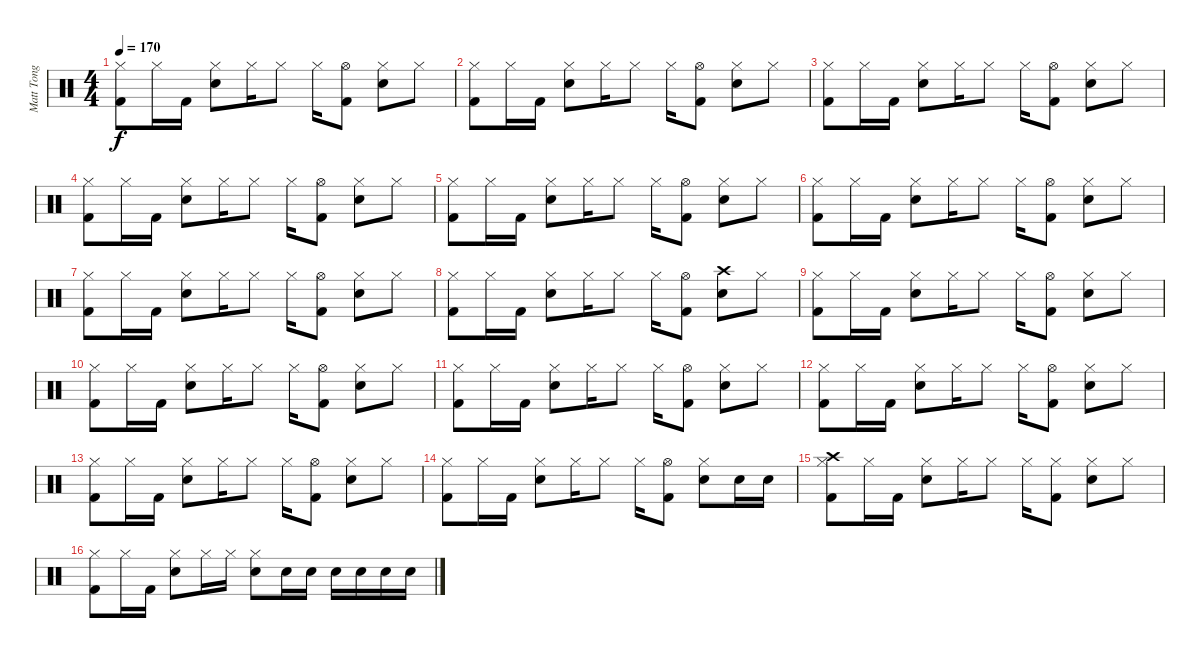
\track ("Matt Tong" "Matt Tong") {instrument percussion}
\staff {score}
\articulation defaults
\ts (4 4)
\tempo 170
\clef neutral
\ks c
("Hi-Hat (closed)" "Kick (hit) 2").8{dy f} "Hi-Hat (closed)".16 "Kick (hit) 2".16 ("Hi-Hat (closed)" "Electric Snare (hit)").8 "Hi-Hat (closed)".16 "Hi-Hat (closed)".8 "Hi-Hat (closed)".16 ("Hi-Hat (open)" "Kick (hit) 2").8 ("Hi-Hat (closed)" "Electric Snare (hit)").8 "Hi-Hat (closed)".8 |
("Hi-Hat (closed)" "Kick (hit) 2").8 "Hi-Hat (closed)".16 "Kick (hit) 2".16 ("Hi-Hat (closed)" "Electric Snare (hit)").8 "Hi-Hat (closed)".16 "Hi-Hat (closed)".8 "Hi-Hat (closed)".16 ("Hi-Hat (open)" "Kick (hit) 2").8 ("Hi-Hat (closed)" "Electric Snare (hit)").8 "Hi-Hat (closed)".8 |
("Hi-Hat (closed)" "Kick (hit) 2").8 "Hi-Hat (closed)".16 "Kick (hit) 2".16 ("Hi-Hat (closed)" "Electric Snare (hit)").8 "Hi-Hat (closed)".16 "Hi-Hat (closed)".8 "Hi-Hat (closed)".16 ("Hi-Hat (open)" "Kick (hit) 2").8 ("Hi-Hat (closed)" "Electric Snare (hit)").8 "Hi-Hat (closed)".8 |
("Hi-Hat (closed)" "Kick (hit) 2").8 "Hi-Hat (closed)".16 "Kick (hit) 2".16 ("Hi-Hat (closed)" "Electric Snare (hit)").8 "Hi-Hat (closed)".16 "Hi-Hat (closed)".8 "Hi-Hat (closed)".16 ("Hi-Hat (open)" "Kick (hit) 2").8 ("Hi-Hat (closed)" "Electric Snare (hit)").8 "Hi-Hat (closed)".8 |
("Hi-Hat (closed)" "Kick (hit) 2").8 "Hi-Hat (closed)".16 "Kick (hit) 2".16 ("Hi-Hat (closed)" "Electric Snare (hit)").8 "Hi-Hat (closed)".16 "Hi-Hat (closed)".8 "Hi-Hat (closed)".16 ("Hi-Hat (open)" "Kick (hit) 2").8 ("Hi-Hat (closed)" "Electric Snare (hit)").8 "Hi-Hat (closed)".8 |
("Hi-Hat (closed)" "Kick (hit) 2").8 "Hi-Hat (closed)".16 "Kick (hit) 2".16 ("Hi-Hat (closed)" "Electric Snare (hit)").8 "Hi-Hat (closed)".16 "Hi-Hat (closed)".8 "Hi-Hat (closed)".16 ("Hi-Hat (open)" "Kick (hit) 2").8 ("Hi-Hat (closed)" "Electric Snare (hit)").8 "Hi-Hat (closed)".8 |
("Hi-Hat (closed)" "Kick (hit) 2").8 "Hi-Hat (closed)".16 "Kick (hit) 2".16 ("Hi-Hat (closed)" "Electric Snare (hit)").8 "Hi-Hat (closed)".16 "Hi-Hat (closed)".8 "Hi-Hat (closed)".16 ("Hi-Hat (open)" "Kick (hit) 2").8 ("Hi-Hat (closed)" "Electric Snare (hit)").8 "Hi-Hat (closed)".8 |
("Hi-Hat (closed)" "Kick (hit) 2").8 "Hi-Hat (closed)".16 "Kick (hit) 2".16 ("Hi-Hat (closed)" "Electric Snare (hit)").8 "Hi-Hat (closed)".16 "Hi-Hat (closed)".8 "Hi-Hat (closed)".16 ("Hi-Hat (open)" "Kick (hit) 2").8 ("Crash high (hit)" "Electric Snare (hit)").8 "Hi-Hat (closed)".8 |
("Hi-Hat (closed)" "Kick (hit) 2").8 "Hi-Hat (closed)".16 "Kick (hit) 2".16 ("Hi-Hat (closed)" "Electric Snare (hit)").8 "Hi-Hat (closed)".16 "Hi-Hat (closed)".8 "Hi-Hat (closed)".16 ("Hi-Hat (open)" "Kick (hit) 2").8 ("Hi-Hat (closed)" "Electric Snare (hit)").8 "Hi-Hat (closed)".8 |
("Hi-Hat (closed)" "Kick (hit) 2").8 "Hi-Hat (closed)".16 "Kick (hit) 2".16 ("Hi-Hat (closed)" "Electric Snare (hit)").8 "Hi-Hat (closed)".16 "Hi-Hat (closed)".8 "Hi-Hat (closed)".16 ("Hi-Hat (open)" "Kick (hit) 2").8 ("Hi-Hat (closed)" "Electric Snare (hit)").8 "Hi-Hat (closed)".8 |
("Hi-Hat (closed)" "Kick (hit) 2").8 "Hi-Hat (closed)".16 "Kick (hit) 2".16 ("Hi-Hat (closed)" "Electric Snare (hit)").8 "Hi-Hat (closed)".16 "Hi-Hat (closed)".8 "Hi-Hat (closed)".16 ("Hi-Hat (open)" "Kick (hit) 2").8 ("Hi-Hat (closed)" "Electric Snare (hit)").8 "Hi-Hat (closed)".8 |
("Hi-Hat (closed)" "Kick (hit) 2").8 "Hi-Hat (closed)".16 "Kick (hit) 2".16 ("Hi-Hat (closed)" "Electric Snare (hit)").8 "Hi-Hat (closed)".16 "Hi-Hat (closed)".8 "Hi-Hat (closed)".16 ("Hi-Hat (open)" "Kick (hit) 2").8 ("Hi-Hat (closed)" "Electric Snare (hit)").8 "Hi-Hat (closed)".8 |
("Hi-Hat (closed)" "Kick (hit) 2").8 "Hi-Hat (closed)".16 "Kick (hit) 2".16 ("Hi-Hat (closed)" "Electric Snare (hit)").8 "Hi-Hat (closed)".16 "Hi-Hat (closed)".8 "Hi-Hat (closed)".16 ("Hi-Hat (open)" "Kick (hit) 2").8 ("Hi-Hat (closed)" "Electric Snare (hit)").8 "Hi-Hat (closed)".8 |
("Hi-Hat (closed)" "Kick (hit) 2").8 "Hi-Hat (closed)".16 "Kick (hit) 2".16 ("Hi-Hat (closed)" "Electric Snare (hit)").8 "Hi-Hat (closed)".16 "Hi-Hat (closed)".8 "Hi-Hat (closed)".16 ("Hi-Hat (open)" "Kick (hit) 2").8 ("Hi-Hat (closed)" "Electric Snare (hit)").8 "Electric Snare (hit)".16 "Electric Snare (hit)".16 |
("Crash high (hit)" "Hi-Hat (closed)" "Kick (hit) 2").8 "Hi-Hat (closed)".16 "Kick (hit) 2".16 ("Hi-Hat (closed)" "Electric Snare (hit)").8 "Hi-Hat (closed)".16 "Hi-Hat (closed)".8 "Hi-Hat (closed)".16 ("Hi-Hat (closed)" "Kick (hit) 2").8 ("Hi-Hat (closed)" "Electric Snare (hit)").8 "Hi-Hat (closed)".8 |
("Hi-Hat (closed)" "Kick (hit) 2").8 "Hi-Hat (closed)".16 "Kick (hit) 2".16 ("Hi-Hat (closed)" "Electric Snare (hit)").8 "Hi-Hat (closed)".16 "Hi-Hat (closed)".16 ("Hi-Hat (closed)" "Electric Snare (hit)").8 "Electric Snare (hit)".16 "Electric Snare (hit)".16 "Electric Snare (hit)".16 "Electric Snare (hit)".16 "Electric Snare (hit)".16 "Electric Snare (hit)".16
